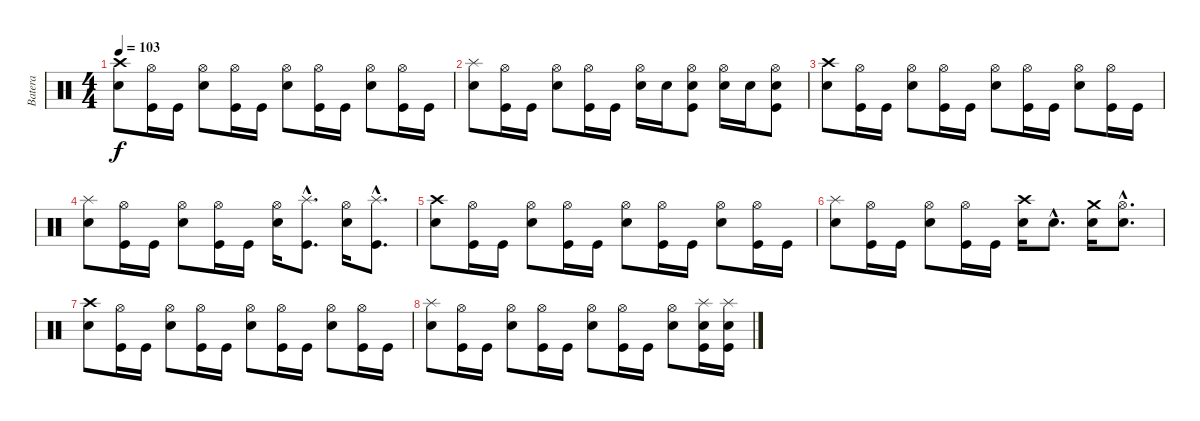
\track ("Batera" "Batera") {instrument percussion}
\staff {score}
\articulation defaults
\ts (4 4)
\tempo 103
\clef neutral
\ks c
("Crash high (hit)" "Snare (hit) 2").8{dy f} ("Hi-Hat (open)" "Kick (hit)").16 "Kick (hit)".16 ("Hi-Hat (open)" "Snare (hit) 2").8 ("Hi-Hat (open)" "Kick (hit)").16 "Kick (hit)".16 ("Hi-Hat (open)" "Snare (hit) 2").8 ("Hi-Hat (open)" "Kick (hit)").16 "Kick (hit)".16 ("Hi-Hat (open)" "Snare (hit) 2").8 ("Hi-Hat (open)" "Kick (hit)").16 "Kick (hit)".16 |
("Splash (hit)" "Snare (hit) 2").8 ("Hi-Hat (open)" "Kick (hit)").16 "Kick (hit)".16 ("Hi-Hat (open)" "Snare (hit) 2").8 ("Hi-Hat (open)" "Kick (hit)").16 "Kick (hit)".16 ("Hi-Hat (open)" "Snare (hit) 2").16 "Snare (hit) 2".16 ("Hi-Hat (open)" "Snare (hit) 2" "Kick (hit)").8 ("Hi-Hat (open)" "Snare (hit) 2").16 "Snare (hit) 2".16 ("Hi-Hat (open)" "Snare (hit) 2" "Kick (hit)").8 |
("Crash high (hit)" "Snare (hit) 2").8 ("Hi-Hat (open)" "Kick (hit)").16 "Kick (hit)".16 ("Hi-Hat (open)" "Snare (hit) 2").8 ("Hi-Hat (open)" "Kick (hit)").16 "Kick (hit)".16 ("Hi-Hat (open)" "Snare (hit) 2").8 ("Hi-Hat (open)" "Kick (hit)").16 "Kick (hit)".16 ("Hi-Hat (open)" "Snare (hit) 2").8 ("Hi-Hat (open)" "Kick (hit)").16 "Kick (hit)".16 |
("Splash (hit)" "Snare (hit) 2").8 ("Hi-Hat (open)" "Kick (hit)").16 "Kick (hit)".16 ("Hi-Hat (open)" "Snare (hit) 2").8 ("Hi-Hat (open)" "Kick (hit)").16 "Kick (hit)".16 ("Hi-Hat (open)" "Snare (hit) 2").16 ("Splash (hit)"{hac} "Kick (hit)"{hac}).8{d} ("Hi-Hat (open)" "Snare (hit) 2").16 ("Splash (hit)"{hac} "Kick (hit)"{hac}).8{d} |
("Crash high (hit)" "Snare (hit) 2").8 ("Hi-Hat (open)" "Kick (hit)").16 "Kick (hit)".16 ("Hi-Hat (open)" "Snare (hit) 2").8 ("Hi-Hat (open)" "Kick (hit)").16 "Kick (hit)".16 ("Hi-Hat (open)" "Snare (hit) 2").8 ("Hi-Hat (open)" "Kick (hit)").16 "Kick (hit)".16 ("Hi-Hat (open)" "Snare (hit) 2").8 ("Hi-Hat (open)" "Kick (hit)").16 "Kick (hit)".16 |
("Splash (hit)" "Snare (hit) 2").8 ("Hi-Hat (open)" "Kick (hit)").16 "Kick (hit)".16 ("Hi-Hat (open)" "Snare (hit) 2").8 ("Hi-Hat (open)" "Kick (hit)").16 "Kick (hit)".16 ("Crash high (hit)" "Snare (hit) 2").16 "Snare (hit) 2"{hac}.8{d} ("Crash medium (hit)" "Snare (hit) 2").16 ("Hi-Hat (open)"{hac} "Snare (hit) 2"{hac}).8{d} |
("Crash high (hit)" "Snare (hit) 2").8 ("Hi-Hat (open)" "Kick (hit)").16 "Kick (hit)".16 ("Hi-Hat (open)" "Snare (hit) 2").8 ("Hi-Hat (open)" "Kick (hit)").16 "Kick (hit)".16 ("Hi-Hat (open)" "Snare (hit) 2").8 ("Hi-Hat (open)" "Kick (hit)").16 "Kick (hit)".16 ("Hi-Hat (open)" "Snare (hit) 2").8 ("Hi-Hat (open)" "Kick (hit)").16 "Kick (hit)".16 |
("Splash (hit)" "Snare (hit) 2").8 ("Hi-Hat (open)" "Kick (hit)").16 "Kick (hit)".16 ("Hi-Hat (open)" "Snare (hit) 2").8 ("Hi-Hat (open)" "Kick (hit)").16 "Kick (hit)".16 ("Hi-Hat (open)" "Snare (hit) 2").8 ("Hi-Hat (open)" "Kick (hit)").16 "Kick (hit)".16 ("Hi-Hat (open)" "Snare (hit) 2").8 ("Splash (hit)" "Snare (hit) 2" "Kick (hit)").16 ("Splash (hit)" "Snare (hit) 2" "Kick (hit)").16
